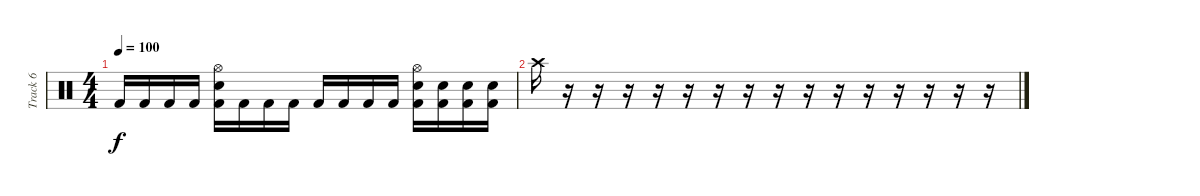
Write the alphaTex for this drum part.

\track ("Track 6" "Track 6") {instrument percussion}
\staff {score}
\articulation defaults
\ts (4 4)
\tempo 100
\clef neutral
\ks c "Kick (hit) 2".16{dy f} "Kick (hit) 2".16 "Kick (hit) 2".16 "Kick (hit) 2".16
("Kick (hit) 2" "Snare (hit) 2" "Hi-Hat (open)").16 "Kick (hit) 2".16 "Kick (hit) 2".16 "Kick (hit) 2".16 "Kick (hit) 2".16 "Kick (hit) 2".16 "Kick (hit) 2".16 "Kick (hit) 2".16 ("Kick (hit) 2" "Snare (hit) 2" "Hi-Hat (open)").16 ("Kick (hit) 2" "Snare (hit) 2").16 ("Kick (hit) 2" "Snare (hit) 2").16 ("Kick (hit) 2" "Snare (hit) 2").16 |
"Crash high (hit)".16 r.16 r.16 r.16 r.16 r.16 r.16 r.16 r.16 r.16 r.16 r.16 r.16 r.16 r.16 r.16
